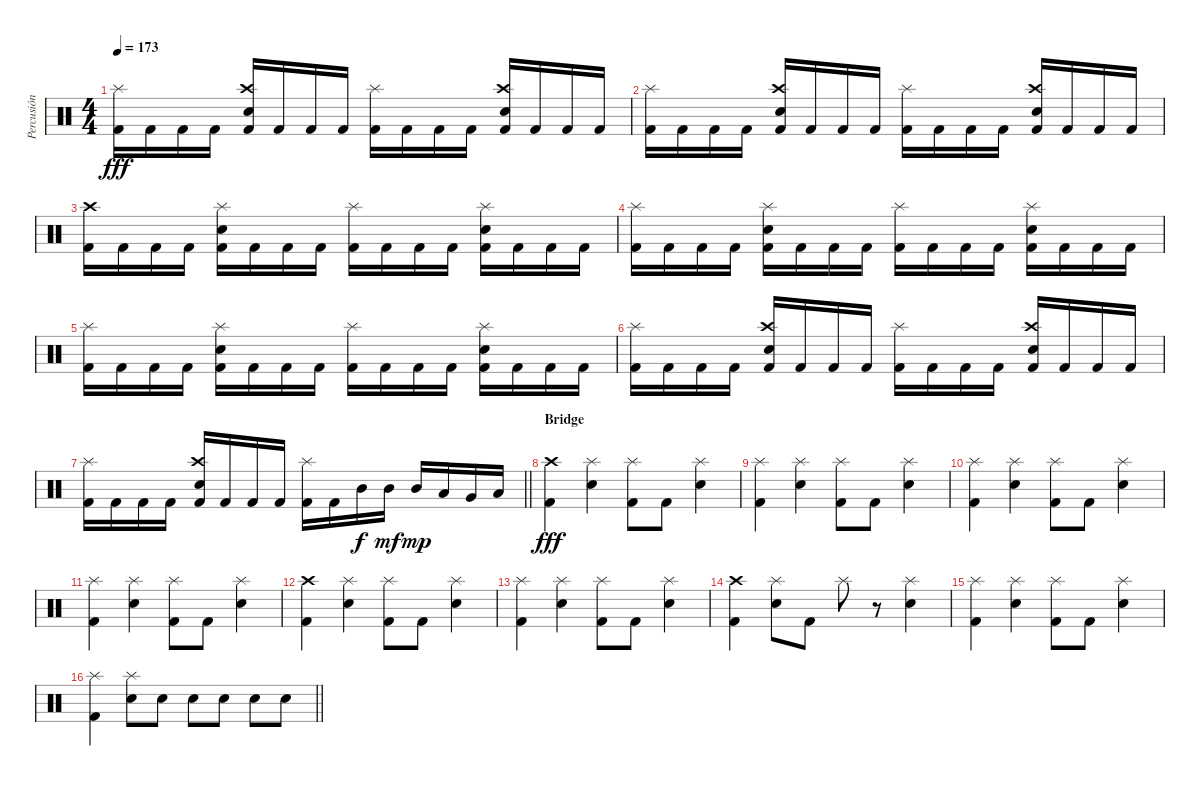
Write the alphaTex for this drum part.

\track ("Percusión" "Percusión") {instrument percussion}
\staff {score}
\articulation defaults
\ts (4 4)
\tempo 173
\clef neutral
\ks c
("Splash (hit)" "Kick (hit) 2").16{dy fff} "Kick (hit) 2".16 "Kick (hit) 2".16 "Kick (hit) 2".16 ("Crash high (hit)" "Electric Snare (hit)" "Kick (hit) 2").16 "Kick (hit) 2".16 "Kick (hit) 2".16 "Kick (hit) 2".16 ("Splash (hit)" "Kick (hit) 2").16 "Kick (hit) 2".16 "Kick (hit) 2".16 "Kick (hit) 2".16 ("Crash high (hit)" "Electric Snare (hit)" "Kick (hit) 2").16 "Kick (hit) 2".16 "Kick (hit) 2".16 "Kick (hit) 2".16 |
("Splash (hit)" "Kick (hit) 2").16 "Kick (hit) 2".16 "Kick (hit) 2".16 "Kick (hit) 2".16 ("Crash high (hit)" "Electric Snare (hit)" "Kick (hit) 2").16 "Kick (hit) 2".16 "Kick (hit) 2".16 "Kick (hit) 2".16 ("Splash (hit)" "Kick (hit) 2").16 "Kick (hit) 2".16 "Kick (hit) 2".16 "Kick (hit) 2".16 ("Crash high (hit)" "Electric Snare (hit)" "Kick (hit) 2").16 "Kick (hit) 2".16 "Kick (hit) 2".16 "Kick (hit) 2".16 |
("Crash high (hit)" "Kick (hit) 2").16 "Kick (hit) 2".16 "Kick (hit) 2".16 "Kick (hit) 2".16 ("Splash (hit)" "Electric Snare (hit)" "Kick (hit) 2").16 "Kick (hit) 2".16 "Kick (hit) 2".16 "Kick (hit) 2".16 ("Splash (hit)" "Kick (hit) 2").16 "Kick (hit) 2".16 "Kick (hit) 2".16 "Kick (hit) 2".16 ("Splash (hit)" "Electric Snare (hit)" "Kick (hit) 2").16 "Kick (hit) 2".16 "Kick (hit) 2".16 "Kick (hit) 2".16 |
("Splash (hit)" "Kick (hit) 2").16 "Kick (hit) 2".16 "Kick (hit) 2".16 "Kick (hit) 2".16 ("Splash (hit)" "Electric Snare (hit)" "Kick (hit) 2").16 "Kick (hit) 2".16 "Kick (hit) 2".16 "Kick (hit) 2".16 ("Splash (hit)" "Kick (hit) 2").16 "Kick (hit) 2".16 "Kick (hit) 2".16 "Kick (hit) 2".16 ("Splash (hit)" "Electric Snare (hit)" "Kick (hit) 2").16 "Kick (hit) 2".16 "Kick (hit) 2".16 "Kick (hit) 2".16 |
("Splash (hit)" "Kick (hit) 2").16 "Kick (hit) 2".16 "Kick (hit) 2".16 "Kick (hit) 2".16 ("Splash (hit)" "Electric Snare (hit)" "Kick (hit) 2").16 "Kick (hit) 2".16 "Kick (hit) 2".16 "Kick (hit) 2".16 ("Splash (hit)" "Kick (hit) 2").16 "Kick (hit) 2".16 "Kick (hit) 2".16 "Kick (hit) 2".16 ("Splash (hit)" "Electric Snare (hit)" "Kick (hit) 2").16 "Kick (hit) 2".16 "Kick (hit) 2".16 "Kick (hit) 2".16 |
("Splash (hit)" "Kick (hit) 2").16 "Kick (hit) 2".16 "Kick (hit) 2".16 "Kick (hit) 2".16 ("Crash high (hit)" "Electric Snare (hit)" "Kick (hit) 2").16 "Kick (hit) 2".16 "Kick (hit) 2".16 "Kick (hit) 2".16 ("Splash (hit)" "Kick (hit) 2").16 "Kick (hit) 2".16 "Kick (hit) 2".16 "Kick (hit) 2".16 ("Crash high (hit)" "Electric Snare (hit)" "Kick (hit) 2").16 "Kick (hit) 2".16 "Kick (hit) 2".16 "Kick (hit) 2".16 |
\barLineRight lightlight
("Splash (hit)" "Kick (hit) 2").16 "Kick (hit) 2".16 "Kick (hit) 2".16 "Kick (hit) 2".16 ("Crash high (hit)" "Electric Snare (hit)" "Kick (hit) 2").16 "Kick (hit) 2".16 "Kick (hit) 2".16 "Kick (hit) 2".16 ("Splash (hit)" "Kick (hit) 2").16 "Kick (hit) 2".16 "Mid Tom (hit)".16{dy f} "Mid Tom (hit)".16{dy mf} "Mid Tom (hit)".16{dy mp} "Low Tom (hit)".16 "Very Low Tom (hit)".16 "Low Floor Tom (hit)".16 |
\section ("" "Bridge")
("Crash high (hit)" "Kick (hit) 2").4{dy fff} ("Splash (hit)" "Electric Snare (hit)").4 ("Splash (hit)" "Kick (hit) 2").8 "Kick (hit) 2".8 ("Splash (hit)" "Electric Snare (hit)").4 |
("Splash (hit)" "Kick (hit) 2").4 ("Splash (hit)" "Electric Snare (hit)").4 ("Splash (hit)" "Kick (hit) 2").8 "Kick (hit) 2".8 ("Splash (hit)" "Electric Snare (hit)").4 |
("Splash (hit)" "Kick (hit) 2").4 ("Splash (hit)" "Electric Snare (hit)").4 ("Splash (hit)" "Kick (hit) 2").8 "Kick (hit) 2".8 ("Splash (hit)" "Electric Snare (hit)").4 |
("Splash (hit)" "Kick (hit) 2").4 ("Splash (hit)" "Electric Snare (hit)").4 ("Splash (hit)" "Kick (hit) 2").8 "Kick (hit) 2".8 ("Splash (hit)" "Electric Snare (hit)").4 |
("Crash high (hit)" "Kick (hit) 2").4 ("Splash (hit)" "Electric Snare (hit)").4 ("Splash (hit)" "Kick (hit) 2").8 "Kick (hit) 2".8 ("Splash (hit)" "Electric Snare (hit)").4 |
("Splash (hit)" "Kick (hit) 2").4 ("Splash (hit)" "Electric Snare (hit)").4 ("Splash (hit)" "Kick (hit) 2").8 "Kick (hit) 2".8 ("Splash (hit)" "Electric Snare (hit)").4 |
("Crash high (hit)" "Kick (hit) 2").4 ("Splash (hit)" "Electric Snare (hit)").8 "Kick (hit) 2".8 "Splash (hit)".8 r.8 ("Splash (hit)" "Electric Snare (hit)").4 |
("Splash (hit)" "Kick (hit) 2").4 ("Splash (hit)" "Electric Snare (hit)").4 ("Splash (hit)" "Kick (hit) 2").8 "Kick (hit) 2".8 ("Splash (hit)" "Electric Snare (hit)").4 |
\barLineRight lightlight
("Splash (hit)" "Kick (hit) 2").4 ("Splash (hit)" "Electric Snare (hit)").8 "Electric Snare (hit)".8 "Electric Snare (hit)".8 "Electric Snare (hit)".8 "Electric Snare (hit)".8 "Electric Snare (hit)".8
